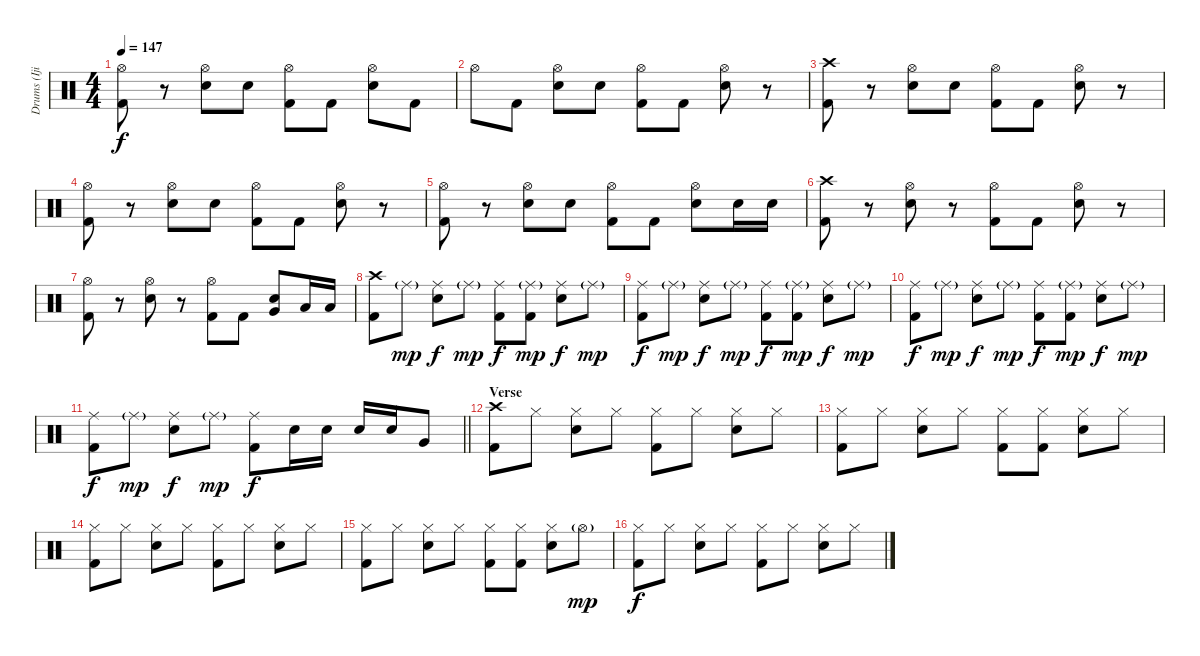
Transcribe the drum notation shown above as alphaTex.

\track ("Drums (Ijichi)" "Drums (Iji") {instrument percussion}
\staff {score}
\articulation defaults
\ts (4 4)
\tempo 147
\clef neutral
\ks c
("Hi-Hat (open)" "Kick (hit) 2").8{dy f} r.8 ("Hi-Hat (open)" "Snare (hit) 2").8 "Snare (hit) 2".8 ("Hi-Hat (open)" "Kick (hit) 2").8 "Kick (hit) 2".8 ("Hi-Hat (open)" "Snare (hit) 2").8 "Kick (hit) 2".8 |
"Hi-Hat (open)".8 "Kick (hit) 2".8 ("Hi-Hat (open)" "Snare (hit) 2").8 "Snare (hit) 2".8 ("Hi-Hat (open)" "Kick (hit) 2").8 "Kick (hit) 2".8 ("Hi-Hat (open)" "Snare (hit) 2").8 r.8 |
("Crash high (hit)" "Kick (hit) 2").8 r.8 ("Hi-Hat (open)" "Snare (hit) 2").8 "Snare (hit) 2".8 ("Hi-Hat (open)" "Kick (hit) 2").8 "Kick (hit) 2".8 ("Hi-Hat (open)" "Snare (hit) 2").8 r.8 |
("Hi-Hat (open)" "Kick (hit) 2").8 r.8 ("Hi-Hat (open)" "Snare (hit) 2").8 "Snare (hit) 2".8 ("Hi-Hat (open)" "Kick (hit) 2").8 "Kick (hit) 2".8 ("Hi-Hat (open)" "Snare (hit) 2").8 r.8 |
("Hi-Hat (open)" "Kick (hit) 2").8 r.8 ("Hi-Hat (open)" "Snare (hit) 2").8 "Snare (hit) 2".8 ("Hi-Hat (open)" "Kick (hit) 2").8 "Kick (hit) 2".8 ("Hi-Hat (open)" "Snare (hit) 2").8 "Snare (hit) 2".16 "Snare (hit) 2".16 |
("Crash high (hit)" "Kick (hit) 2").8 r.8 ("Hi-Hat (open)" "Snare (hit) 2").8 r.8 ("Hi-Hat (open)" "Kick (hit) 2").8 "Kick (hit) 2".8 ("Hi-Hat (open)" "Snare (hit) 2").8 r.8 |
("Hi-Hat (open)" "Kick (hit) 2").8 r.8 ("Hi-Hat (open)" "Snare (hit) 2").8 r.8 ("Hi-Hat (open)" "Kick (hit) 2").8 "Kick (hit) 2".8 ("Snare (hit) 2" "Very Low Tom (hit)").8 "Low Floor Tom (hit)".16 "Low Floor Tom (hit)".16 |
("Crash high (hit)" "Kick (hit) 2").8 "Ride (middle)"{g}.8{dy mp} ("Ride (middle)" "Snare (hit) 2").8{dy f} "Ride (middle)"{g}.8{dy mp} ("Ride (middle)" "Kick (hit) 2").8{dy f} ("Ride (middle)"{g} "Kick (hit) 2").8{dy mp} ("Ride (middle)" "Snare (hit) 2").8{dy f} "Ride (middle)"{g}.8{dy mp} |
("Ride (middle)" "Kick (hit) 2").8{dy f} "Ride (middle)"{g}.8{dy mp} ("Ride (middle)" "Snare (hit) 2").8{dy f} "Ride (middle)"{g}.8{dy mp} ("Ride (middle)" "Kick (hit) 2").8{dy f} ("Ride (middle)"{g} "Kick (hit) 2").8{dy mp} ("Ride (middle)" "Snare (hit) 2").8{dy f} "Ride (middle)"{g}.8{dy mp} |
("Ride (middle)" "Kick (hit) 2").8{dy f} "Ride (middle)"{g}.8{dy mp} ("Ride (middle)" "Snare (hit) 2").8{dy f} "Ride (middle)"{g}.8{dy mp} ("Ride (middle)" "Kick (hit) 2").8{dy f} ("Ride (middle)"{g} "Kick (hit) 2").8{dy mp} ("Ride (middle)" "Snare (hit) 2").8{dy f} "Ride (middle)"{g}.8{dy mp} |
\barLineRight lightlight
("Ride (middle)" "Kick (hit) 2").8{dy f} "Ride (middle)"{g}.8{dy mp} ("Ride (middle)" "Snare (hit) 2").8{dy f} "Ride (middle)"{g}.8{dy mp} ("Ride (middle)" "Kick (hit) 2").8{dy f} "Snare (hit) 2".16 "Snare (hit) 2".16 "Snare (hit) 2".16 "Snare (hit) 2".16 "Very Low Tom (hit)".8 |
\section ("" "Verse")
("Crash high (hit)" "Kick (hit) 2").8 "Hi-Hat (closed)".8 ("Hi-Hat (closed)" "Snare (hit) 2").8 "Hi-Hat (closed)".8 ("Hi-Hat (closed)" "Kick (hit) 2").8 "Hi-Hat (closed)".8 ("Hi-Hat (closed)" "Snare (hit) 2").8 "Hi-Hat (closed)".8 |
("Hi-Hat (closed)" "Kick (hit) 2").8 "Hi-Hat (closed)".8 ("Hi-Hat (closed)" "Snare (hit) 2").8 "Hi-Hat (closed)".8 ("Hi-Hat (closed)" "Kick (hit) 2").8 ("Hi-Hat (closed)" "Kick (hit) 2").8 ("Hi-Hat (closed)" "Snare (hit) 2").8 "Hi-Hat (closed)".8 |
("Hi-Hat (closed)" "Kick (hit) 2").8 "Hi-Hat (closed)".8 ("Hi-Hat (closed)" "Snare (hit) 2").8 "Hi-Hat (closed)".8 ("Hi-Hat (closed)" "Kick (hit) 2").8 "Hi-Hat (closed)".8 ("Hi-Hat (closed)" "Snare (hit) 2").8 "Hi-Hat (closed)".8 |
("Hi-Hat (closed)" "Kick (hit) 2").8 "Hi-Hat (closed)".8 ("Hi-Hat (closed)" "Snare (hit) 2").8 "Hi-Hat (closed)".8 ("Hi-Hat (closed)" "Kick (hit) 2").8 ("Hi-Hat (closed)" "Kick (hit) 2").8 ("Hi-Hat (closed)" "Snare (hit) 2").8 "Hi-Hat (open)"{g}.8{dy mp} |
("Hi-Hat (closed)" "Kick (hit) 2").8{dy f} "Hi-Hat (closed)".8 ("Hi-Hat (closed)" "Snare (hit) 2").8 "Hi-Hat (closed)".8 ("Hi-Hat (closed)" "Kick (hit) 2").8 "Hi-Hat (closed)".8 ("Hi-Hat (closed)" "Snare (hit) 2").8 "Hi-Hat (closed)".8
